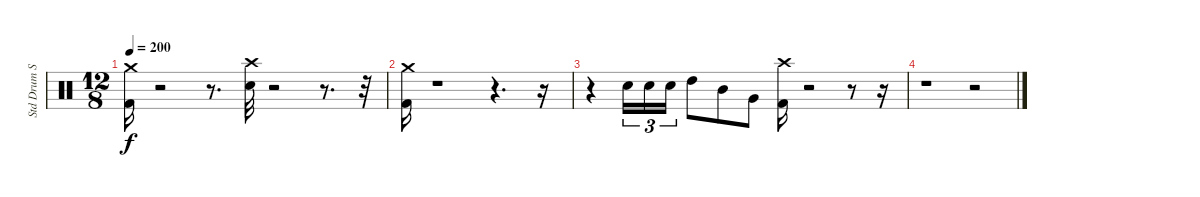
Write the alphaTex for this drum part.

\track ("Std Drum Set" "Std Drum S") {instrument percussion}
\staff {score}
\articulation defaults
\ts (12 8)
\tempo 200
\clef neutral
\ks c
("Kick (hit) 2" "Crash medium (hit)").16{dy f} r.2 r.8{d} ("Snare (hit) 2" "Crash high (hit)").32 r.2 r.8{d} r.32 |
("Kick (hit) 2" "Crash medium (hit)").16 r.1 r.4{d} r.16 |
r.4 "Snare (hit) 2".16{tu (3 2)} "Snare (hit) 2".16{tu (3 2)} "Snare (hit) 2".16{tu (3 2)} "High Tom (hit)".8 "Mid Tom (hit)".8 "Very Low Tom (hit)".8 ("Kick (hit) 2" "Crash high (hit)").16 r.2 r.8 r.16 |
r.1 r.2
